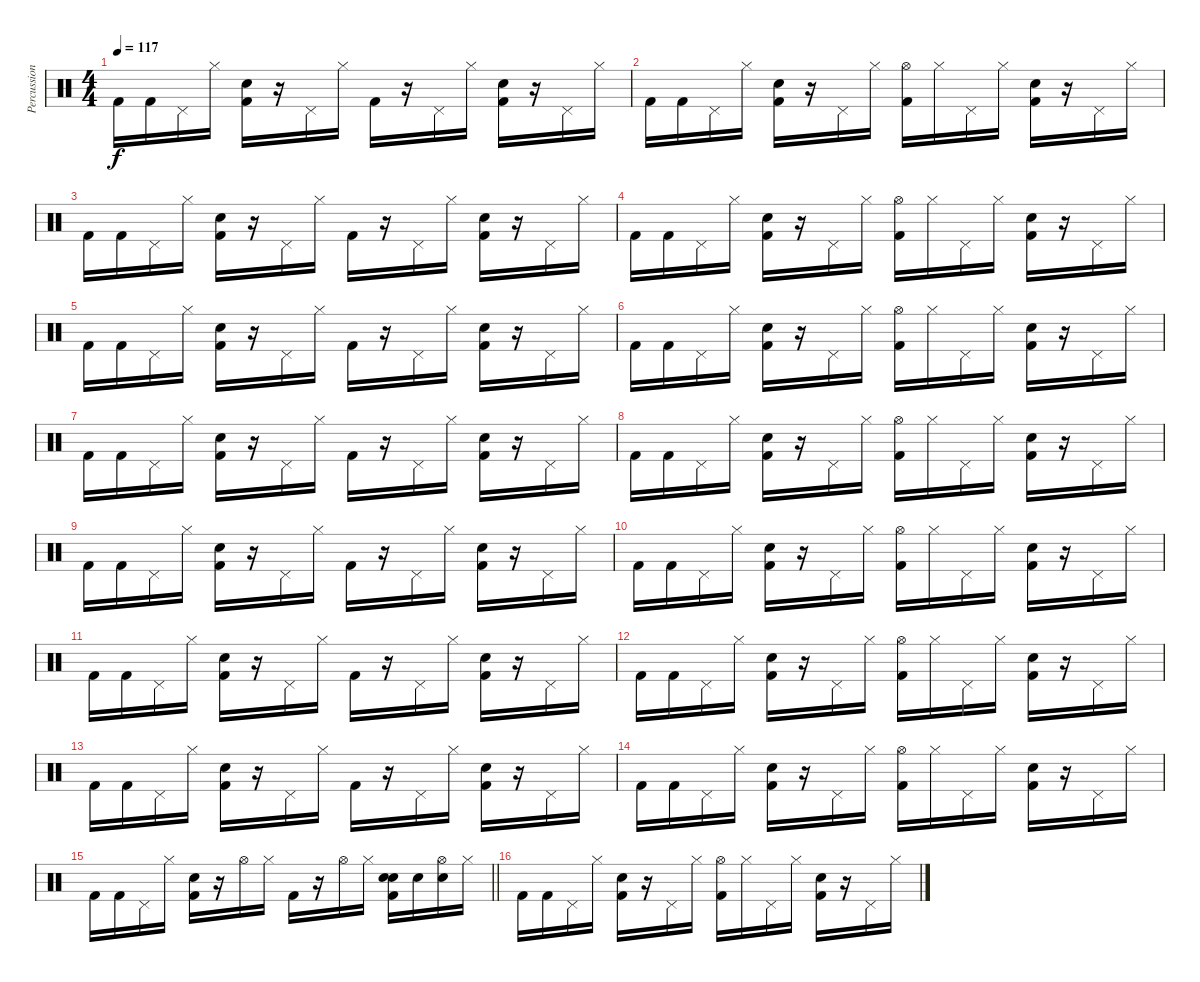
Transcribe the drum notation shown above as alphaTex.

\track ("Percussion" "Percussion") {instrument percussion}
\staff {score}
\articulation defaults
\ts (4 4)
\tempo 117
\clef neutral
\ks c "Kick (hit) 2".16{dy f} "Kick (hit) 2".16 "Pedal Hi-Hat (hit)".16 "Hi-Hat (closed)".16
("Snare (hit) 2" "Kick (hit) 2").16 r.16 "Pedal Hi-Hat (hit)".16 "Hi-Hat (closed)".16 "Kick (hit) 2".16 r.16 "Pedal Hi-Hat (hit)".16 "Hi-Hat (closed)".16 ("Snare (hit) 2" "Kick (hit) 2").16 r.16 "Pedal Hi-Hat (hit)".16 "Hi-Hat (closed)".16 |
"Kick (hit) 2".16 "Kick (hit) 2".16 "Pedal Hi-Hat (hit)".16 "Hi-Hat (closed)".16 ("Snare (hit) 2" "Kick (hit) 2").16 r.16 "Pedal Hi-Hat (hit)".16 "Hi-Hat (closed)".16 ("Hi-Hat (open)" "Kick (hit) 2").16 "Hi-Hat (closed)".16 "Pedal Hi-Hat (hit)".16 "Hi-Hat (closed)".16 ("Snare (hit) 2" "Kick (hit) 2").16 r.16 "Pedal Hi-Hat (hit)".16 "Hi-Hat (closed)".16 |
"Kick (hit) 2".16 "Kick (hit) 2".16 "Pedal Hi-Hat (hit)".16 "Hi-Hat (closed)".16 ("Snare (hit) 2" "Kick (hit) 2").16 r.16 "Pedal Hi-Hat (hit)".16 "Hi-Hat (closed)".16 "Kick (hit) 2".16 r.16 "Pedal Hi-Hat (hit)".16 "Hi-Hat (closed)".16 ("Snare (hit) 2" "Kick (hit) 2").16 r.16 "Pedal Hi-Hat (hit)".16 "Hi-Hat (closed)".16 |
"Kick (hit) 2".16 "Kick (hit) 2".16 "Pedal Hi-Hat (hit)".16 "Hi-Hat (closed)".16 ("Snare (hit) 2" "Kick (hit) 2").16 r.16 "Pedal Hi-Hat (hit)".16 "Hi-Hat (closed)".16 ("Hi-Hat (open)" "Kick (hit) 2").16 "Hi-Hat (closed)".16 "Pedal Hi-Hat (hit)".16 "Hi-Hat (closed)".16 ("Snare (hit) 2" "Kick (hit) 2").16 r.16 "Pedal Hi-Hat (hit)".16 "Hi-Hat (closed)".16 |
"Kick (hit) 2".16 "Kick (hit) 2".16 "Pedal Hi-Hat (hit)".16 "Hi-Hat (closed)".16 ("Snare (hit) 2" "Kick (hit) 2").16 r.16 "Pedal Hi-Hat (hit)".16 "Hi-Hat (closed)".16 "Kick (hit) 2".16 r.16 "Pedal Hi-Hat (hit)".16 "Hi-Hat (closed)".16 ("Snare (hit) 2" "Kick (hit) 2").16 r.16 "Pedal Hi-Hat (hit)".16 "Hi-Hat (closed)".16 |
"Kick (hit) 2".16 "Kick (hit) 2".16 "Pedal Hi-Hat (hit)".16 "Hi-Hat (closed)".16 ("Snare (hit) 2" "Kick (hit) 2").16 r.16 "Pedal Hi-Hat (hit)".16 "Hi-Hat (closed)".16 ("Hi-Hat (open)" "Kick (hit) 2").16 "Hi-Hat (closed)".16 "Pedal Hi-Hat (hit)".16 "Hi-Hat (closed)".16 ("Snare (hit) 2" "Kick (hit) 2").16 r.16 "Pedal Hi-Hat (hit)".16 "Hi-Hat (closed)".16 |
"Kick (hit) 2".16 "Kick (hit) 2".16 "Pedal Hi-Hat (hit)".16 "Hi-Hat (closed)".16 ("Snare (hit) 2" "Kick (hit) 2").16 r.16 "Pedal Hi-Hat (hit)".16 "Hi-Hat (closed)".16 "Kick (hit) 2".16 r.16 "Pedal Hi-Hat (hit)".16 "Hi-Hat (closed)".16 ("Snare (hit) 2" "Kick (hit) 2").16 r.16 "Pedal Hi-Hat (hit)".16 "Hi-Hat (closed)".16 |
"Kick (hit) 2".16 "Kick (hit) 2".16 "Pedal Hi-Hat (hit)".16 "Hi-Hat (closed)".16 ("Snare (hit) 2" "Kick (hit) 2").16 r.16 "Pedal Hi-Hat (hit)".16 "Hi-Hat (closed)".16 ("Hi-Hat (open)" "Kick (hit) 2").16 "Hi-Hat (closed)".16 "Pedal Hi-Hat (hit)".16 "Hi-Hat (closed)".16 ("Snare (hit) 2" "Kick (hit) 2").16 r.16 "Pedal Hi-Hat (hit)".16 "Hi-Hat (closed)".16 |
"Kick (hit) 2".16 "Kick (hit) 2".16 "Pedal Hi-Hat (hit)".16 "Hi-Hat (closed)".16 ("Snare (hit) 2" "Kick (hit) 2").16 r.16 "Pedal Hi-Hat (hit)".16 "Hi-Hat (closed)".16 "Kick (hit) 2".16 r.16 "Pedal Hi-Hat (hit)".16 "Hi-Hat (closed)".16 ("Snare (hit) 2" "Kick (hit) 2").16 r.16 "Pedal Hi-Hat (hit)".16 "Hi-Hat (closed)".16 |
"Kick (hit) 2".16 "Kick (hit) 2".16 "Pedal Hi-Hat (hit)".16 "Hi-Hat (closed)".16 ("Snare (hit) 2" "Kick (hit) 2").16 r.16 "Pedal Hi-Hat (hit)".16 "Hi-Hat (closed)".16 ("Hi-Hat (open)" "Kick (hit) 2").16 "Hi-Hat (closed)".16 "Pedal Hi-Hat (hit)".16 "Hi-Hat (closed)".16 ("Snare (hit) 2" "Kick (hit) 2").16 r.16 "Pedal Hi-Hat (hit)".16 "Hi-Hat (closed)".16 |
"Kick (hit) 2".16 "Kick (hit) 2".16 "Pedal Hi-Hat (hit)".16 "Hi-Hat (closed)".16 ("Snare (hit) 2" "Kick (hit) 2").16 r.16 "Pedal Hi-Hat (hit)".16 "Hi-Hat (closed)".16 "Kick (hit) 2".16 r.16 "Pedal Hi-Hat (hit)".16 "Hi-Hat (closed)".16 ("Snare (hit) 2" "Kick (hit) 2").16 r.16 "Pedal Hi-Hat (hit)".16 "Hi-Hat (closed)".16 |
"Kick (hit) 2".16 "Kick (hit) 2".16 "Pedal Hi-Hat (hit)".16 "Hi-Hat (closed)".16 ("Snare (hit) 2" "Kick (hit) 2").16 r.16 "Pedal Hi-Hat (hit)".16 "Hi-Hat (closed)".16 ("Hi-Hat (open)" "Kick (hit) 2").16 "Hi-Hat (closed)".16 "Pedal Hi-Hat (hit)".16 "Hi-Hat (closed)".16 ("Snare (hit) 2" "Kick (hit) 2").16 r.16 "Pedal Hi-Hat (hit)".16 "Hi-Hat (closed)".16 |
"Kick (hit) 2".16 "Kick (hit) 2".16 "Pedal Hi-Hat (hit)".16 "Hi-Hat (closed)".16 ("Snare (hit) 2" "Kick (hit) 2").16 r.16 "Pedal Hi-Hat (hit)".16 "Hi-Hat (closed)".16 "Kick (hit) 2".16 r.16 "Pedal Hi-Hat (hit)".16 "Hi-Hat (closed)".16 ("Snare (hit) 2" "Kick (hit) 2").16 r.16 "Pedal Hi-Hat (hit)".16 "Hi-Hat (closed)".16 |
"Kick (hit) 2".16 "Kick (hit) 2".16 "Pedal Hi-Hat (hit)".16 "Hi-Hat (closed)".16 ("Snare (hit) 2" "Kick (hit) 2").16 r.16 "Pedal Hi-Hat (hit)".16 "Hi-Hat (closed)".16 ("Hi-Hat (open)" "Kick (hit) 2").16 "Hi-Hat (closed)".16 "Pedal Hi-Hat (hit)".16 "Hi-Hat (closed)".16 ("Snare (hit) 2" "Kick (hit) 2").16 r.16 "Pedal Hi-Hat (hit)".16 "Hi-Hat (closed)".16 |
\barLineRight lightlight "Kick (hit) 2".16 "Kick (hit) 2".16 "Pedal Hi-Hat (hit)".16 "Hi-Hat (closed)".16
("Snare (hit) 2" "Kick (hit) 2").16 r.16 "Hi-Hat (open)".16 "Hi-Hat (closed)".16 "Kick (hit) 2".16 r.16 "Hi-Hat (open)".16 "Hi-Hat (closed)".16 ("Hand Clap (hit)" "Snare (hit) 2" "Kick (hit) 2").16 "Hand Clap (hit)".16 ("Hi-Hat (open)" "Hand Clap (hit)").16 "Hi-Hat (closed)".16 |
"Kick (hit) 2".16 "Kick (hit) 2".16 "Pedal Hi-Hat (hit)".16 "Hi-Hat (closed)".16 ("Snare (hit) 2" "Kick (hit) 2").16 r.16 "Pedal Hi-Hat (hit)".16 "Hi-Hat (closed)".16 ("Hi-Hat (open)" "Kick (hit) 2").16 "Hi-Hat (closed)".16 "Pedal Hi-Hat (hit)".16 "Hi-Hat (closed)".16 ("Snare (hit) 2" "Kick (hit) 2").16 r.16 "Pedal Hi-Hat (hit)".16 "Hi-Hat (closed)".16
